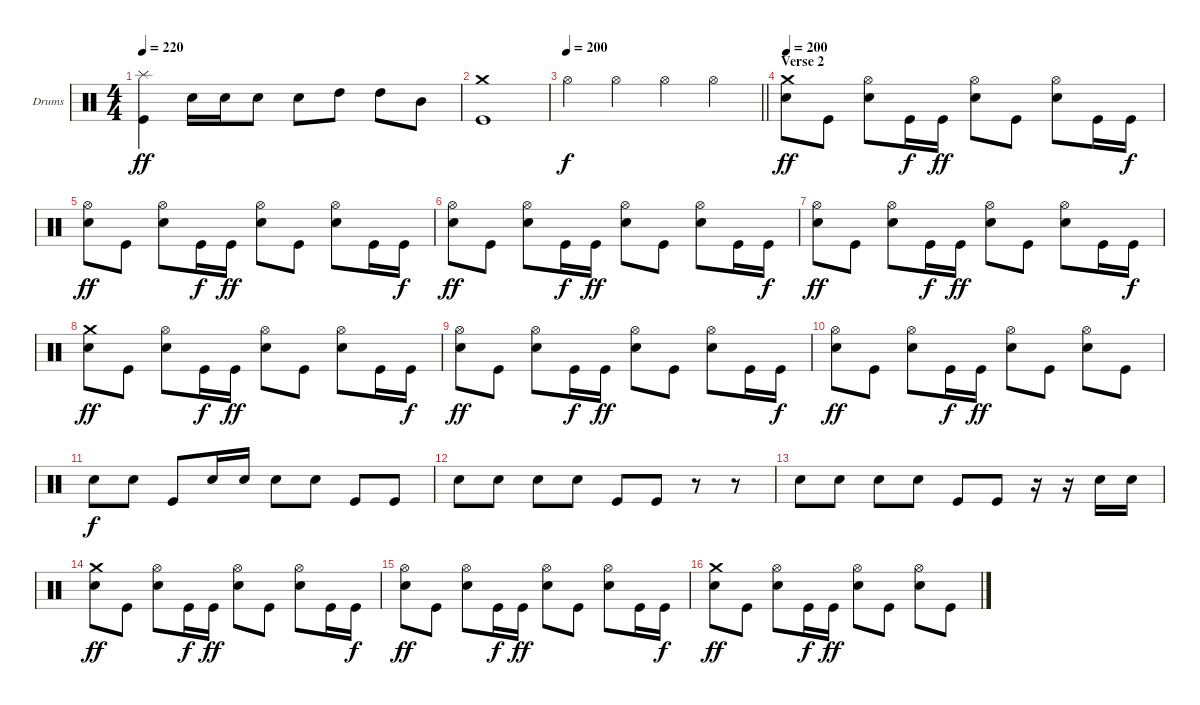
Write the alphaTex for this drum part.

\bracketExtendMode groupsimilarinstruments
\firstSystemTrackNameOrientation horizontal
\otherSystemsTrackNameOrientation horizontal
\track ("Drumkit" "Drums") {instrument percussion}
\staff {score}
\articulation defaults
\ts (4 4)
\tempo 220
\clef neutral
\ks c
("Splash (hit)" "Kick (hit)").4{dy ff} "Snare (hit) 2".16 "Snare (hit) 2".16 "Snare (hit) 2".8 "Snare (hit) 2".8 "High Tom (hit)".8 "High Tom (hit)".8 "Mid Tom (hit)".8 |
("Crash medium (hit)" "Kick (hit)").1 |
\tempo 200
\barLineRight lightlight "Hi-Hat (open)".4{dy f} "Hi-Hat (open)".4 "Hi-Hat (open)".4 "Hi-Hat (open)".4
|
\section ("" "Verse 2")
\tempo 200
("Crash medium (hit)" "Snare (hit) 2").8{dy ff} "Kick (hit)".8 ("Hi-Hat (open)" "Snare (hit) 2").8 "Kick (hit)".16{dy f} "Kick (hit)".16{dy ff} ("Hi-Hat (open)" "Snare (hit) 2").8 "Kick (hit)".8 ("Hi-Hat (open)" "Snare (hit) 2").8 "Kick (hit)".16 "Kick (hit)".16{dy f} |
("Hi-Hat (open)" "Snare (hit) 2").8{dy ff} "Kick (hit)".8 ("Hi-Hat (open)" "Snare (hit) 2").8 "Kick (hit)".16{dy f} "Kick (hit)".16{dy ff} ("Hi-Hat (open)" "Snare (hit) 2").8 "Kick (hit)".8 ("Hi-Hat (open)" "Snare (hit) 2").8 "Kick (hit)".16 "Kick (hit)".16{dy f} |
("Hi-Hat (open)" "Snare (hit) 2").8{dy ff} "Kick (hit)".8 ("Hi-Hat (open)" "Snare (hit) 2").8 "Kick (hit)".16{dy f} "Kick (hit)".16{dy ff} ("Hi-Hat (open)" "Snare (hit) 2").8 "Kick (hit)".8 ("Hi-Hat (open)" "Snare (hit) 2").8 "Kick (hit)".16 "Kick (hit)".16{dy f} |
("Hi-Hat (open)" "Snare (hit) 2").8{dy ff} "Kick (hit)".8 ("Hi-Hat (open)" "Snare (hit) 2").8 "Kick (hit)".16{dy f} "Kick (hit)".16{dy ff} ("Hi-Hat (open)" "Snare (hit) 2").8 "Kick (hit)".8 ("Hi-Hat (open)" "Snare (hit) 2").8 "Kick (hit)".16 "Kick (hit)".16{dy f} |
("Crash medium (hit)" "Snare (hit) 2").8{dy ff} "Kick (hit)".8 ("Hi-Hat (open)" "Snare (hit) 2").8 "Kick (hit)".16{dy f} "Kick (hit)".16{dy ff} ("Hi-Hat (open)" "Snare (hit) 2").8 "Kick (hit)".8 ("Hi-Hat (open)" "Snare (hit) 2").8 "Kick (hit)".16 "Kick (hit)".16{dy f} |
("Hi-Hat (open)" "Snare (hit) 2").8{dy ff} "Kick (hit)".8 ("Hi-Hat (open)" "Snare (hit) 2").8 "Kick (hit)".16{dy f} "Kick (hit)".16{dy ff} ("Hi-Hat (open)" "Snare (hit) 2").8 "Kick (hit)".8 ("Hi-Hat (open)" "Snare (hit) 2").8 "Kick (hit)".16 "Kick (hit)".16{dy f} |
("Hi-Hat (open)" "Snare (hit) 2").8{dy ff} "Kick (hit)".8 ("Hi-Hat (open)" "Snare (hit) 2").8 "Kick (hit)".16{dy f} "Kick (hit)".16{dy ff} ("Hi-Hat (open)" "Snare (hit) 2").8 "Kick (hit)".8 ("Hi-Hat (open)" "Snare (hit) 2").8 "Kick (hit)".8 |
"Snare (hit) 2".8{dy f} "Snare (hit) 2".8 "Kick (hit)".8 "Snare (hit) 2".16 "Snare (hit) 2".16 "Snare (hit) 2".8 "Snare (hit) 2".8 "Kick (hit)".8 "Kick (hit)".8 |
"Snare (hit) 2".8 "Snare (hit) 2".8 "Snare (hit) 2".8 "Snare (hit) 2".8 "Kick (hit)".8 "Kick (hit)".8 r.8 r.8 |
"Snare (hit) 2".8 "Snare (hit) 2".8 "Snare (hit) 2".8 "Snare (hit) 2".8 "Kick (hit)".8 "Kick (hit)".8 r.16 r.16 "Snare (hit) 2".16 "Snare (hit) 2".16 |
("Crash medium (hit)" "Snare (hit) 2").8{dy ff} "Kick (hit)".8 ("Hi-Hat (open)" "Snare (hit) 2").8 "Kick (hit)".16{dy f} "Kick (hit)".16{dy ff} ("Hi-Hat (open)" "Snare (hit) 2").8 "Kick (hit)".8 ("Hi-Hat (open)" "Snare (hit) 2").8 "Kick (hit)".16 "Kick (hit)".16{dy f} |
("Hi-Hat (open)" "Snare (hit) 2").8{dy ff} "Kick (hit)".8 ("Hi-Hat (open)" "Snare (hit) 2").8 "Kick (hit)".16{dy f} "Kick (hit)".16{dy ff} ("Hi-Hat (open)" "Snare (hit) 2").8 "Kick (hit)".8 ("Hi-Hat (open)" "Snare (hit) 2").8 "Kick (hit)".16 "Kick (hit)".16{dy f} |
("Crash medium (hit)" "Snare (hit) 2").8{dy ff} "Kick (hit)".8 ("Hi-Hat (open)" "Snare (hit) 2").8 "Kick (hit)".16{dy f} "Kick (hit)".16{dy ff} ("Hi-Hat (open)" "Snare (hit) 2").8 "Kick (hit)".8 ("Hi-Hat (open)" "Snare (hit) 2").8 "Kick (hit)".8
